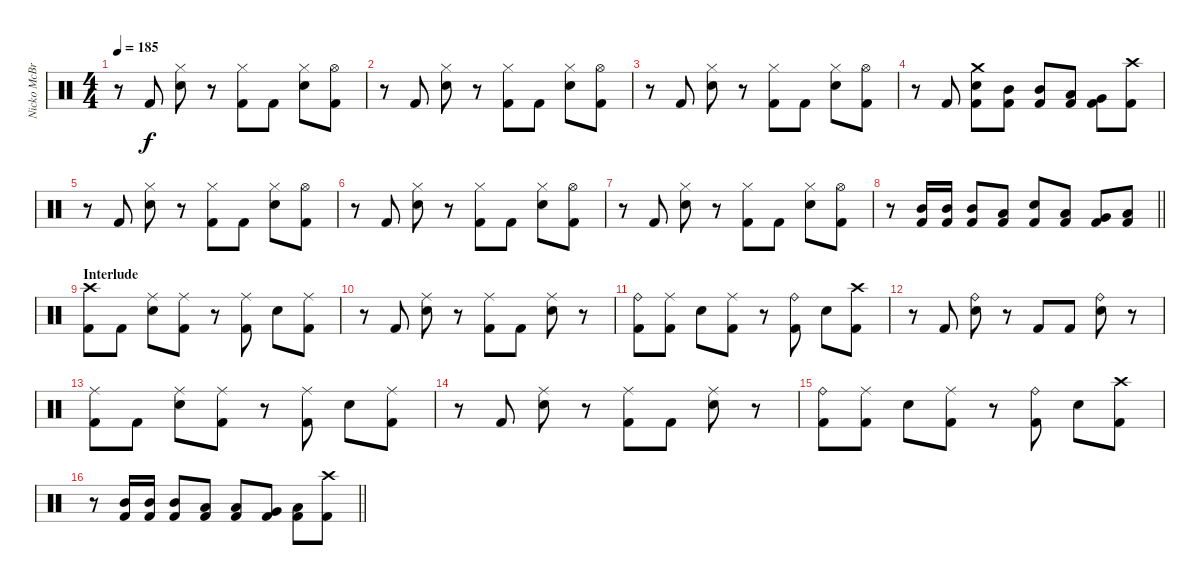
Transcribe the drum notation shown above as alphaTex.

\track ("Nicko McBrain" "Nicko McBr") {instrument percussion}
\staff {score}
\articulation defaults
\ts (4 4)
\tempo 185
\clef neutral
\ks c
r.8{dy f} "Kick (hit) 2".8 ("Hi-Hat (closed)" "Snare (hit) 2").8 r.8 ("Hi-Hat (closed)" "Kick (hit) 2").8 "Kick (hit) 2".8 ("Hi-Hat (closed)" "Snare (hit) 2").8 ("Hi-Hat (open)" "Kick (hit) 2").8 |
r.8 "Kick (hit) 2".8 ("Hi-Hat (closed)" "Snare (hit) 2").8 r.8 ("Hi-Hat (closed)" "Kick (hit) 2").8 "Kick (hit) 2".8 ("Hi-Hat (closed)" "Snare (hit) 2").8 ("Hi-Hat (open)" "Kick (hit) 2").8 |
r.8 "Kick (hit) 2".8 ("Hi-Hat (closed)" "Snare (hit) 2").8 r.8 ("Hi-Hat (closed)" "Kick (hit) 2").8 "Kick (hit) 2".8 ("Hi-Hat (closed)" "Snare (hit) 2").8 ("Hi-Hat (open)" "Kick (hit) 2").8 |
r.8 "Kick (hit) 2".8 ("Crash medium (hit)" "Snare (hit) 2" "Kick (hit) 2").8 ("Mid Tom (hit)" "Kick (hit) 2").8 ("Mid Tom (hit)" "Kick (hit) 2").8 ("Low Tom (hit)" "Kick (hit) 2").8 ("Very Low Tom (hit)" "Kick (hit) 2").8 ("Crash high (hit)" "Kick (hit) 2").8 |
r.8 "Kick (hit) 2".8 ("Hi-Hat (closed)" "Snare (hit) 2").8 r.8 ("Hi-Hat (closed)" "Kick (hit) 2").8 "Kick (hit) 2".8 ("Hi-Hat (closed)" "Snare (hit) 2").8 ("Hi-Hat (open)" "Kick (hit) 2").8 |
r.8 "Kick (hit) 2".8 ("Hi-Hat (closed)" "Snare (hit) 2").8 r.8 ("Hi-Hat (closed)" "Kick (hit) 2").8 "Kick (hit) 2".8 ("Hi-Hat (closed)" "Snare (hit) 2").8 ("Hi-Hat (open)" "Kick (hit) 2").8 |
r.8 "Kick (hit) 2".8 ("Hi-Hat (closed)" "Snare (hit) 2").8 r.8 ("Hi-Hat (closed)" "Kick (hit) 2").8 "Kick (hit) 2".8 ("Hi-Hat (closed)" "Snare (hit) 2").8 ("Hi-Hat (open)" "Kick (hit) 2").8 |
\barLineRight lightlight
r.8 ("Mid Tom (hit)" "Kick (hit) 2").16 ("Mid Tom (hit)" "Kick (hit) 2").16 ("Mid Tom (hit)" "Kick (hit) 2").8 ("Low Tom (hit)" "Kick (hit) 2").8 ("Snare (hit) 2" "Kick (hit) 2").8 ("Low Tom (hit)" "Kick (hit) 2").8 ("Very Low Tom (hit)" "Kick (hit) 2").8 ("Low Floor Tom (hit)" "Kick (hit) 2").8 |
\section ("" "Interlude")
("Crash high (hit)" "Kick (hit) 2").8 "Kick (hit) 2".8 ("Ride (middle)" "Snare (hit) 2").8 ("Ride (middle)" "Kick (hit) 2").8 r.8 ("Ride (middle)" "Kick (hit) 2").8 "Snare (hit) 2".8 ("Ride (middle)" "Kick (hit) 2").8 |
r.8 "Kick (hit) 2".8 ("Ride (middle)" "Snare (hit) 2").8 r.8 ("Ride (middle)" "Kick (hit) 2").8 "Kick (hit) 2".8 ("Ride (middle)" "Snare (hit) 2").8 r.8 |
("Ride (bell)" "Kick (hit) 2").8 ("Ride (middle)" "Kick (hit) 2").8 "Snare (hit) 2".8 ("Ride (middle)" "Kick (hit) 2").8 r.8 ("Ride (bell)" "Kick (hit) 2").8 "Snare (hit) 2".8 ("Crash high (hit)" "Kick (hit) 2").8 |
r.8 "Kick (hit) 2".8 ("Ride (bell)" "Snare (hit) 2").8 r.8 "Kick (hit) 2".8 "Kick (hit) 2".8 ("Ride (bell)" "Snare (hit) 2").8 r.8 |
("Ride (middle)" "Kick (hit) 2").8 "Kick (hit) 2".8 ("Ride (middle)" "Snare (hit) 2").8 ("Ride (middle)" "Kick (hit) 2").8 r.8 ("Ride (middle)" "Kick (hit) 2").8 "Snare (hit) 2".8 ("Ride (middle)" "Kick (hit) 2").8 |
r.8 "Kick (hit) 2".8 ("Ride (middle)" "Snare (hit) 2").8 r.8 ("Ride (middle)" "Kick (hit) 2").8 "Kick (hit) 2".8 ("Ride (middle)" "Snare (hit) 2").8 r.8 |
("Ride (bell)" "Kick (hit) 2").8 ("Ride (middle)" "Kick (hit) 2").8 "Snare (hit) 2".8 ("Ride (middle)" "Kick (hit) 2").8 r.8 ("Ride (bell)" "Kick (hit) 2").8 "Snare (hit) 2".8 ("Crash high (hit)" "Kick (hit) 2").8 |
\barLineRight lightlight
r.8 ("Mid Tom (hit)" "Kick (hit) 2").16 ("Mid Tom (hit)" "Kick (hit) 2").16 ("Mid Tom (hit)" "Kick (hit) 2").8 ("Low Tom (hit)" "Kick (hit) 2").8 ("Low Tom (hit)" "Kick (hit) 2").8 ("Very Low Tom (hit)" "Kick (hit) 2").8 ("Low Floor Tom (hit)" "Kick (hit) 2").8 ("Crash high (hit)" "Kick (hit) 2").8
